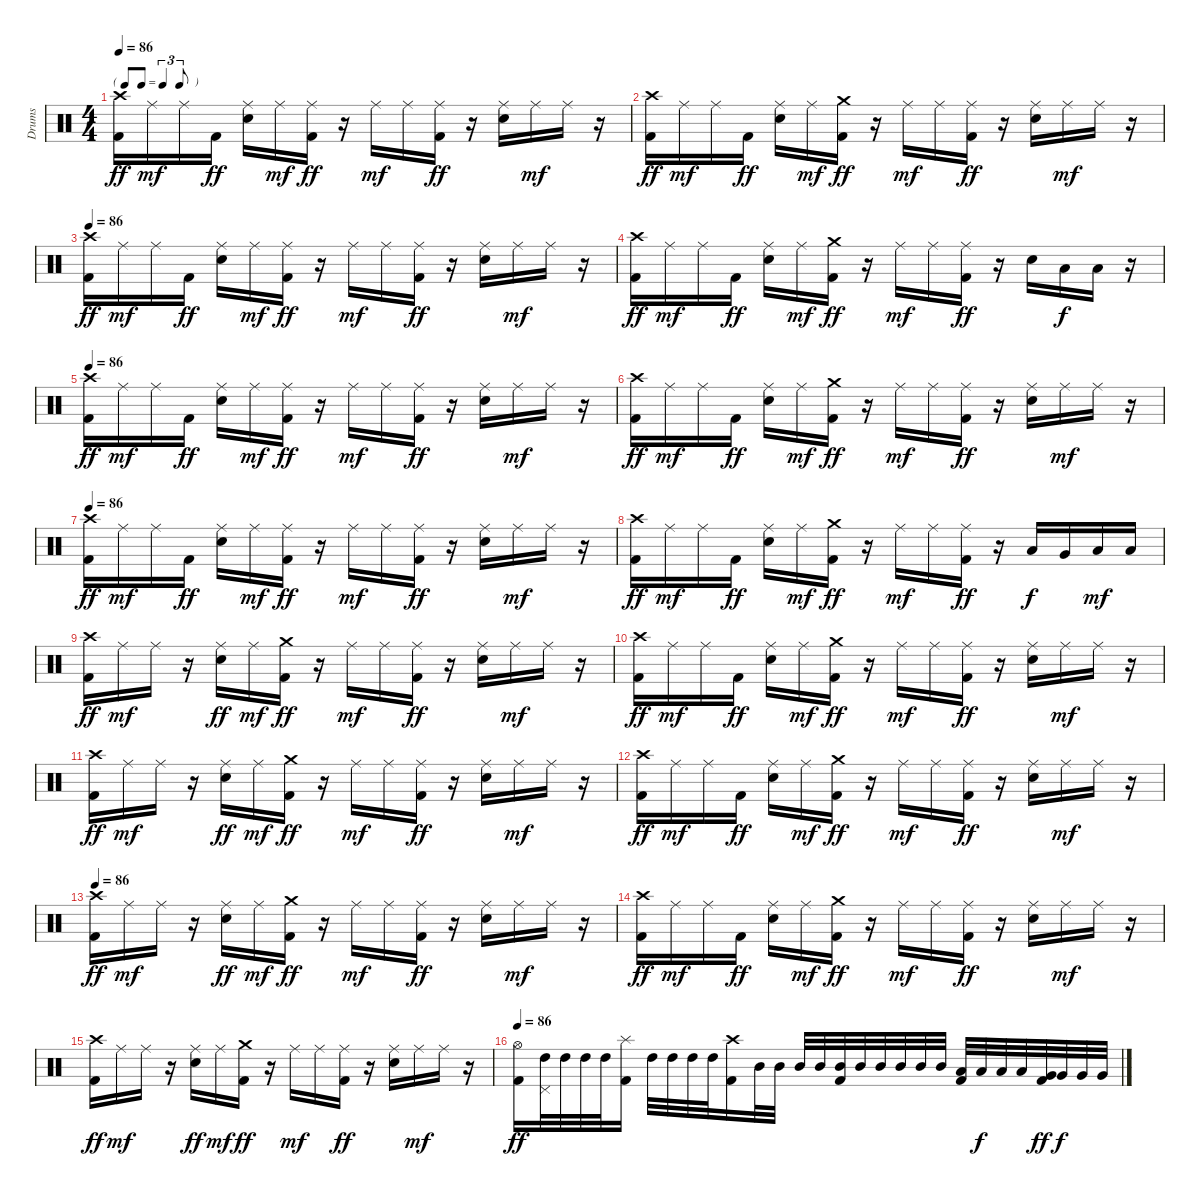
\track ("Drums" "Drums") {instrument percussion}
\staff {score}
\articulation defaults
\ts (4 4)
\tf triplet8th
\tempo 86
\clef neutral
\ks c
("Crash high (hit)" "Kick (hit) 2").16{dy ff} "Ride (middle)".16{dy mf} "Ride (middle)".16 "Kick (hit) 2".16{dy ff} ("Ride (middle)" "Electric Snare (hit)").16 "Ride (middle)".16{dy mf} ("Ride (middle)" "Kick (hit) 2").16{dy ff} r.16 "Ride (middle)".16{dy mf} "Ride (middle)".16 ("Ride (middle)" "Kick (hit) 2").16{dy ff} r.16 ("Ride (middle)" "Electric Snare (hit)").16 "Ride (middle)".16{dy mf} "Ride (middle)".16 r.16 |
("Crash high (hit)" "Kick (hit) 2").16{dy ff} "Ride (middle)".16{dy mf} "Ride (middle)".16 "Kick (hit) 2".16{dy ff} ("Ride (middle)" "Electric Snare (hit)").16 "Ride (middle)".16{dy mf} ("Crash medium (hit)" "Kick (hit) 2").16{dy ff} r.16 "Ride (middle)".16{dy mf} "Ride (middle)".16 ("Ride (middle)" "Kick (hit) 2").16{dy ff} r.16 ("Ride (middle)" "Electric Snare (hit)").16 "Ride (middle)".16{dy mf} "Ride (middle)".16 r.16 |
\tempo 86
("Crash high (hit)" "Kick (hit) 2").16{dy ff} "Ride (middle)".16{dy mf} "Ride (middle)".16 "Kick (hit) 2".16{dy ff} ("Ride (middle)" "Electric Snare (hit)").16 "Ride (middle)".16{dy mf} ("Ride (middle)" "Kick (hit) 2").16{dy ff} r.16 "Ride (middle)".16{dy mf} "Ride (middle)".16 ("Ride (middle)" "Kick (hit) 2").16{dy ff} r.16 ("Ride (middle)" "Electric Snare (hit)").16 "Ride (middle)".16{dy mf} "Ride (middle)".16 r.16 |
("Crash high (hit)" "Kick (hit) 2").16{dy ff} "Ride (middle)".16{dy mf} "Ride (middle)".16 "Kick (hit) 2".16{dy ff} ("Ride (middle)" "Electric Snare (hit)").16 "Ride (middle)".16{dy mf} ("Crash medium (hit)" "Kick (hit) 2").16{dy ff} r.16 "Ride (middle)".16{dy mf} "Ride (middle)".16 ("Ride (middle)" "Kick (hit) 2").16{dy ff} r.16 "Electric Snare (hit)".16 "Low Tom (hit)".16{dy f} "Low Tom (hit)".16 r.16 |
\tempo 86
("Crash high (hit)" "Kick (hit) 2").16{dy ff} "Ride (middle)".16{dy mf} "Ride (middle)".16 "Kick (hit) 2".16{dy ff} ("Ride (middle)" "Electric Snare (hit)").16 "Ride (middle)".16{dy mf} ("Ride (middle)" "Kick (hit) 2").16{dy ff} r.16 "Ride (middle)".16{dy mf} "Ride (middle)".16 ("Ride (middle)" "Kick (hit) 2").16{dy ff} r.16 ("Ride (middle)" "Electric Snare (hit)").16 "Ride (middle)".16{dy mf} "Ride (middle)".16 r.16 |
("Crash high (hit)" "Kick (hit) 2").16{dy ff} "Ride (middle)".16{dy mf} "Ride (middle)".16 "Kick (hit) 2".16{dy ff} ("Ride (middle)" "Electric Snare (hit)").16 "Ride (middle)".16{dy mf} ("Crash medium (hit)" "Kick (hit) 2").16{dy ff} r.16 "Ride (middle)".16{dy mf} "Ride (middle)".16 ("Ride (middle)" "Kick (hit) 2").16{dy ff} r.16 ("Ride (middle)" "Electric Snare (hit)").16 "Ride (middle)".16{dy mf} "Ride (middle)".16 r.16 |
\tempo 86
("Crash high (hit)" "Kick (hit) 2").16{dy ff} "Ride (middle)".16{dy mf} "Ride (middle)".16 "Kick (hit) 2".16{dy ff} ("Ride (middle)" "Electric Snare (hit)").16 "Ride (middle)".16{dy mf} ("Ride (middle)" "Kick (hit) 2").16{dy ff} r.16 "Ride (middle)".16{dy mf} "Ride (middle)".16 ("Ride (middle)" "Kick (hit) 2").16{dy ff} r.16 ("Ride (middle)" "Electric Snare (hit)").16 "Ride (middle)".16{dy mf} "Ride (middle)".16 r.16 |
("Crash high (hit)" "Kick (hit) 2").16{dy ff} "Ride (middle)".16{dy mf} "Ride (middle)".16 "Kick (hit) 2".16{dy ff} ("Ride (middle)" "Electric Snare (hit)").16 "Ride (middle)".16{dy mf} ("Crash medium (hit)" "Kick (hit) 2").16{dy ff} r.16 "Ride (middle)".16{dy mf} "Ride (middle)".16 ("Ride (middle)" "Kick (hit) 2").16{dy ff} r.16 "Low Tom (hit)".16{dy f} "Very Low Tom (hit)".16 "Low Floor Tom (hit)".16{dy mf} "Low Floor Tom (hit)".16 |
("Crash high (hit)" "Kick (hit) 2").16{dy ff} "Ride (middle)".16{dy mf} "Ride (middle)".16 r.16 ("Ride (middle)" "Electric Snare (hit)").16{dy ff} "Ride (middle)".16{dy mf} ("Crash medium (hit)" "Kick (hit) 2").16{dy ff} r.16 "Ride (middle)".16{dy mf} "Ride (middle)".16 ("Ride (middle)" "Kick (hit) 2").16{dy ff} r.16 ("Ride (middle)" "Electric Snare (hit)").16 "Ride (middle)".16{dy mf} "Ride (middle)".16 r.16 |
("Crash high (hit)" "Kick (hit) 2").16{dy ff} "Ride (middle)".16{dy mf} "Ride (middle)".16 "Kick (hit) 2".16{dy ff} ("Ride (middle)" "Electric Snare (hit)").16 "Ride (middle)".16{dy mf} ("Crash medium (hit)" "Kick (hit) 2").16{dy ff} r.16 "Ride (middle)".16{dy mf} "Ride (middle)".16 ("Ride (middle)" "Kick (hit) 2").16{dy ff} r.16 ("Ride (middle)" "Electric Snare (hit)").16 "Ride (middle)".16{dy mf} "Ride (middle)".16 r.16 |
("Crash high (hit)" "Kick (hit) 2").16{dy ff} "Ride (middle)".16{dy mf} "Ride (middle)".16 r.16 ("Ride (middle)" "Electric Snare (hit)").16{dy ff} "Ride (middle)".16{dy mf} ("Crash medium (hit)" "Kick (hit) 2").16{dy ff} r.16 "Ride (middle)".16{dy mf} "Ride (middle)".16 ("Ride (middle)" "Kick (hit) 2").16{dy ff} r.16 ("Ride (middle)" "Electric Snare (hit)").16 "Ride (middle)".16{dy mf} "Ride (middle)".16 r.16 |
("Crash high (hit)" "Kick (hit) 2").16{dy ff} "Ride (middle)".16{dy mf} "Ride (middle)".16 "Kick (hit) 2".16{dy ff} ("Ride (middle)" "Electric Snare (hit)").16 "Ride (middle)".16{dy mf} ("Crash medium (hit)" "Kick (hit) 2").16{dy ff} r.16 "Ride (middle)".16{dy mf} "Ride (middle)".16 ("Ride (middle)" "Kick (hit) 2").16{dy ff} r.16 ("Ride (middle)" "Electric Snare (hit)").16 "Ride (middle)".16{dy mf} "Ride (middle)".16 r.16 |
\tempo 86
("Crash high (hit)" "Kick (hit) 2").16{dy ff} "Ride (middle)".16{dy mf} "Ride (middle)".16 r.16 ("Ride (middle)" "Electric Snare (hit)").16{dy ff} "Ride (middle)".16{dy mf} ("Crash medium (hit)" "Kick (hit) 2").16{dy ff} r.16 "Ride (middle)".16{dy mf} "Ride (middle)".16 ("Ride (middle)" "Kick (hit) 2").16{dy ff} r.16 ("Ride (middle)" "Electric Snare (hit)").16 "Ride (middle)".16{dy mf} "Ride (middle)".16 r.16 |
("Crash high (hit)" "Kick (hit) 2").16{dy ff} "Ride (middle)".16{dy mf} "Ride (middle)".16 "Kick (hit) 2".16{dy ff} ("Ride (middle)" "Electric Snare (hit)").16 "Ride (middle)".16{dy mf} ("Crash medium (hit)" "Kick (hit) 2").16{dy ff} r.16 "Ride (middle)".16{dy mf} "Ride (middle)".16 ("Ride (middle)" "Kick (hit) 2").16{dy ff} r.16 ("Ride (middle)" "Electric Snare (hit)").16 "Ride (middle)".16{dy mf} "Ride (middle)".16 r.16 |
("Crash high (hit)" "Kick (hit) 2").16{dy ff} "Ride (middle)".16{dy mf} "Ride (middle)".16 r.16 ("Ride (middle)" "Electric Snare (hit)").16{dy ff} "Ride (middle)".16{dy mf} ("Crash medium (hit)" "Kick (hit) 2").16{dy ff} r.16 "Ride (middle)".16{dy mf} "Ride (middle)".16 ("Ride (middle)" "Kick (hit) 2").16{dy ff} r.16 ("Ride (middle)" "Electric Snare (hit)").16 "Ride (middle)".16{dy mf} "Ride (middle)".16 r.16 |
\tempo 86
("Hi-Hat (open)" "Kick (hit) 2").16{dy ff} ("Pedal Hi-Hat (hit)" "High Tom (hit)").32 "High Tom (hit)".32 "High Tom (hit)".32 "High Tom (hit)".32 ("Splash (hit)" "Kick (hit) 2").16 "High Tom (hit)".32 "High Tom (hit)".32 "High Tom (hit)".32 "High Tom (hit)".32 ("Crash high (hit)" "Kick (hit) 2").16 "Mid Tom (hit)".32 "Mid Tom (hit)".32 "Mid Tom (hit)".32 "Mid Tom (hit)".32 ("Mid Tom (hit)" "Kick (hit) 2").32 "Mid Tom (hit)".32 "Mid Tom (hit)".32 "Mid Tom (hit)".32 "Mid Tom (hit)".32 "Mid Tom (hit)".32 ("Low Tom (hit)" "Kick (hit) 2").32 "Low Tom (hit)".32{dy f} "Low Tom (hit)".32 "Low Tom (hit)".32 ("Very Low Tom (hit)" "Kick (hit) 2").32{dy ff} "Very Low Tom (hit)".32{dy f} "Very Low Tom (hit)".32 "Very Low Tom (hit)".32
